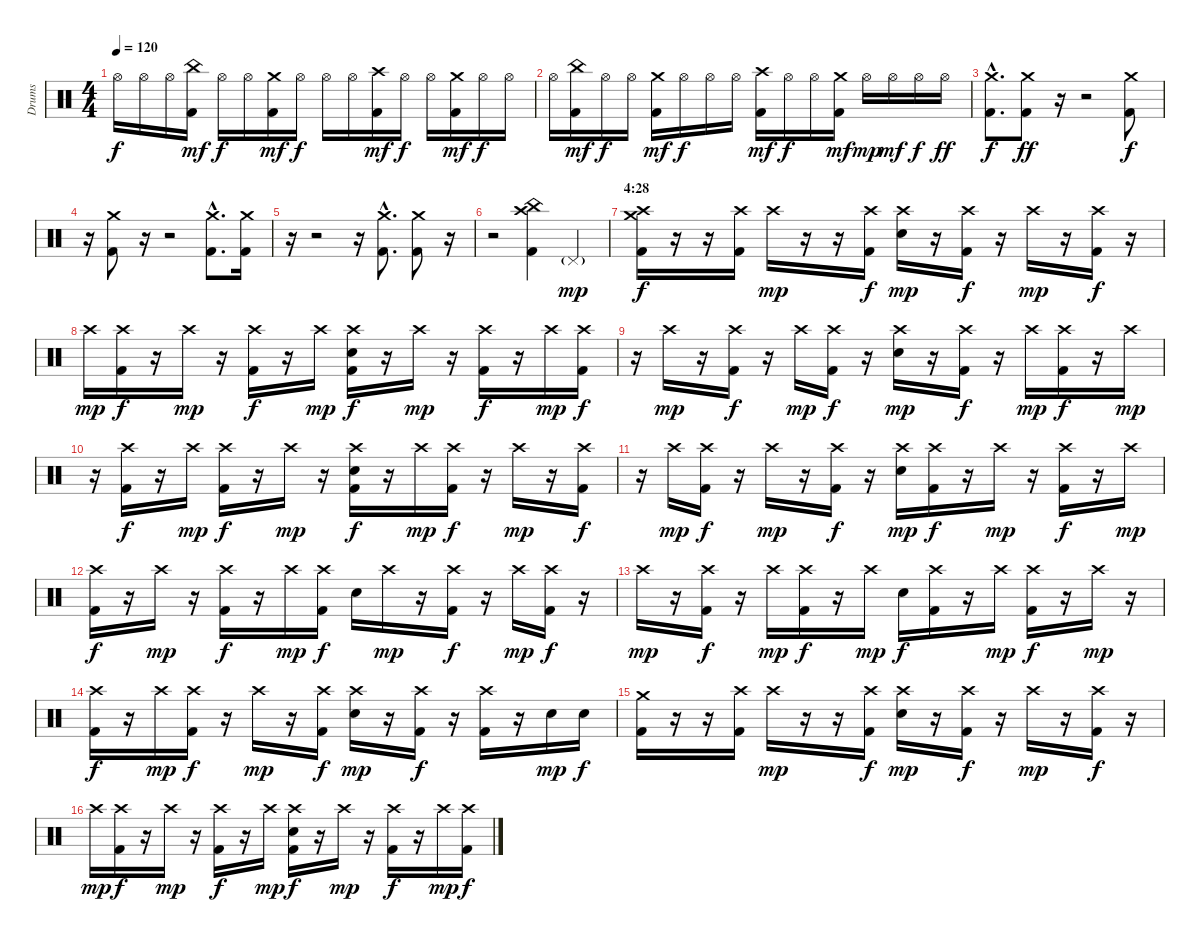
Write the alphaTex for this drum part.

\track ("Drums" "Drums") {instrument percussion}
\staff {score}
\articulation defaults
\ts (4 4)
\tempo 120
\clef neutral
\ks c "Hi-Hat (open)".16{dy f} "Hi-Hat (open)".16 "Hi-Hat (open)".16
("China (hit)" "Kick (hit) 2").16{dy mf} "Hi-Hat (open)".16{dy f} "Hi-Hat (open)".16 ("Crash medium (hit)" "Kick (hit) 2").16{dy mf} "Hi-Hat (open)".16{dy f} "Hi-Hat (open)".16 "Hi-Hat (open)".16 ("Crash high (hit)" "Kick (hit) 2").16{dy mf} "Hi-Hat (open)".16{dy f} "Hi-Hat (open)".16 ("Crash medium (hit)" "Kick (hit) 2").16{dy mf} "Hi-Hat (open)".16{dy f} "Hi-Hat (open)".16 |
"Hi-Hat (open)".16 ("China (hit)" "Kick (hit) 2").16{dy mf} "Hi-Hat (open)".16{dy f} "Hi-Hat (open)".16 ("Crash medium (hit)" "Kick (hit) 2").16{dy mf} "Hi-Hat (open)".16{dy f} "Hi-Hat (open)".16 "Hi-Hat (open)".16 ("Crash high (hit)" "Kick (hit) 2").16{dy mf} "Hi-Hat (open)".16{dy f} "Hi-Hat (open)".16 ("Crash medium (hit)" "Kick (hit) 2").16{dy mf} "Hi-Hat (open)".16{dy mp} "Hi-Hat (open)".16{dy mf} "Hi-Hat (open)".16{dy f} "Hi-Hat (open)".16{dy ff} |
("Crash medium (hit)"{hac} "Kick (hit) 2"{hac}).8{d dy f} ("Crash medium (hit)" "Kick (hit) 2").8{dy ff} r.16{volume 0} r.2 ("Crash medium (hit)" "Kick (hit) 2").8{dy f volume 13} |
r.16 ("Crash medium (hit)" "Kick (hit) 2").8 r.16{volume 0} r.2 ("Crash medium (hit)"{hac} "Kick (hit) 2"{hac}).8{d volume 13} ("Crash medium (hit)" "Kick (hit) 2").16 |
r.16 r.2{volume 0} r.16 ("Crash medium (hit)"{hac} "Kick (hit) 2"{hac}).8{d volume 13} ("Crash medium (hit)" "Kick (hit) 2").8 r.16{volume 0} |
r.2 ("China (hit)" "Crash high (hit)" "Kick (hit) 2").4{volume 13} "Pedal Hi-Hat (hit)"{g}.4{dy mp} |
\section ("" "4:28")
("Crash medium (hit)" "Crash high (hit)" "Kick (hit) 2").16{dy f} r.16 r.16 ("Crash high (hit)" "Kick (hit) 2").16 "Crash high (hit)".16{dy mp} r.16 r.16 ("Crash high (hit)" "Kick (hit) 2").16{dy f} ("Crash high (hit)" "Electric Snare (hit)").16{dy mp} r.16 ("Crash high (hit)" "Kick (hit) 2").16{dy f} r.16 "Crash high (hit)".16{dy mp} r.16 ("Crash high (hit)" "Kick (hit) 2").16{dy f} r.16 |
"Crash high (hit)".16{dy mp} ("Crash high (hit)" "Kick (hit) 2").16{dy f} r.16 "Crash high (hit)".16{dy mp} r.16 ("Crash high (hit)" "Kick (hit) 2").16{dy f} r.16 "Crash high (hit)".16{dy mp} ("Crash high (hit)" "Electric Snare (hit)" "Kick (hit) 2").16{dy f} r.16 "Crash high (hit)".16{dy mp} r.16 ("Crash high (hit)" "Kick (hit) 2").16{dy f} r.16 "Crash high (hit)".16{dy mp} ("Crash high (hit)" "Kick (hit) 2").16{dy f} |
r.16 "Crash high (hit)".16{dy mp} r.16 ("Crash high (hit)" "Kick (hit) 2").16{dy f} r.16 "Crash high (hit)".16{dy mp} ("Crash high (hit)" "Kick (hit) 2").16{dy f} r.16 ("Crash high (hit)" "Electric Snare (hit)").16{dy mp} r.16 ("Crash high (hit)" "Kick (hit) 2").16{dy f} r.16 "Crash high (hit)".16{dy mp} ("Crash high (hit)" "Kick (hit) 2").16{dy f} r.16 "Crash high (hit)".16{dy mp} |
r.16 ("Crash high (hit)" "Kick (hit) 2").16{dy f} r.16 "Crash high (hit)".16{dy mp} ("Crash high (hit)" "Kick (hit) 2").16{dy f} r.16 "Crash high (hit)".16{dy mp} r.16 ("Crash high (hit)" "Electric Snare (hit)" "Kick (hit) 2").16{dy f} r.16 "Crash high (hit)".16{dy mp} ("Crash high (hit)" "Kick (hit) 2").16{dy f} r.16 "Crash high (hit)".16{dy mp} r.16 ("Crash high (hit)" "Kick (hit) 2").16{dy f} |
r.16 "Crash high (hit)".16{dy mp} ("Crash high (hit)" "Kick (hit) 2").16{dy f} r.16 "Crash high (hit)".16{dy mp} r.16 ("Crash high (hit)" "Kick (hit) 2").16{dy f} r.16 ("Crash high (hit)" "Electric Snare (hit)").16{dy mp} ("Crash high (hit)" "Kick (hit) 2").16{dy f} r.16 "Crash high (hit)".16{dy mp} r.16 ("Crash high (hit)" "Kick (hit) 2").16{dy f} r.16 "Crash high (hit)".16{dy mp} |
("Crash high (hit)" "Kick (hit) 2").16{dy f} r.16 "Crash high (hit)".16{dy mp} r.16 ("Crash high (hit)" "Kick (hit) 2").16{dy f} r.16 "Crash high (hit)".16{dy mp} ("Crash high (hit)" "Kick (hit) 2").16{dy f} "Electric Snare (hit)".16 "Crash high (hit)".16{dy mp} r.16 ("Crash high (hit)" "Kick (hit) 2").16{dy f} r.16 "Crash high (hit)".16{dy mp} ("Crash high (hit)" "Kick (hit) 2").16{dy f} r.16 |
"Crash high (hit)".16{dy mp} r.16 ("Crash high (hit)" "Kick (hit) 2").16{dy f} r.16 "Crash high (hit)".16{dy mp} ("Crash high (hit)" "Kick (hit) 2").16{dy f} r.16 "Crash high (hit)".16{dy mp} "Electric Snare (hit)".16{dy f} ("Crash high (hit)" "Kick (hit) 2").16 r.16 "Crash high (hit)".16{dy mp} ("Crash high (hit)" "Kick (hit) 2").16{dy f} r.16 "Crash high (hit)".16{dy mp} r.16 |
("Crash high (hit)" "Kick (hit) 2").16{dy f} r.16 "Crash high (hit)".16{dy mp} ("Crash high (hit)" "Kick (hit) 2").16{dy f} r.16 "Crash high (hit)".16{dy mp} r.16 ("Crash high (hit)" "Kick (hit) 2").16{dy f} ("Crash high (hit)" "Electric Snare (hit)").16{dy mp} r.16 ("Crash high (hit)" "Kick (hit) 2").16{dy f} r.16 ("Crash high (hit)" "Kick (hit) 2").16 r.16 "Electric Snare (hit)".16{dy mp} "Electric Snare (hit)".16{dy f} |
("Crash medium (hit)" "Kick (hit) 2").16 r.16 r.16 ("Crash high (hit)" "Kick (hit) 2").16 "Crash high (hit)".16{dy mp} r.16 r.16 ("Crash high (hit)" "Kick (hit) 2").16{dy f} ("Crash high (hit)" "Electric Snare (hit)").16{dy mp} r.16 ("Crash high (hit)" "Kick (hit) 2").16{dy f} r.16 "Crash high (hit)".16{dy mp} r.16 ("Crash high (hit)" "Kick (hit) 2").16{dy f} r.16 |
"Crash high (hit)".16{dy mp} ("Crash high (hit)" "Kick (hit) 2").16{dy f} r.16 "Crash high (hit)".16{dy mp} r.16 ("Crash high (hit)" "Kick (hit) 2").16{dy f} r.16 "Crash high (hit)".16{dy mp} ("Crash high (hit)" "Electric Snare (hit)" "Kick (hit) 2").16{dy f} r.16 "Crash high (hit)".16{dy mp} r.16 ("Crash high (hit)" "Kick (hit) 2").16{dy f} r.16 "Crash high (hit)".16{dy mp} ("Crash high (hit)" "Kick (hit) 2").16{dy f}
